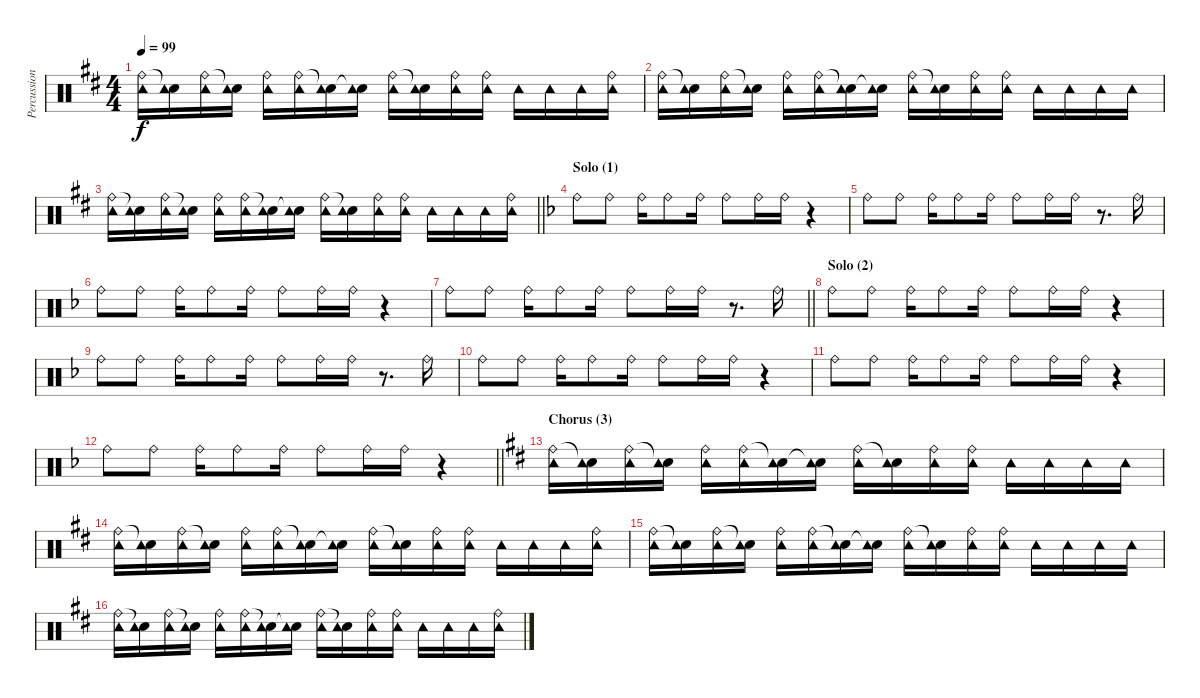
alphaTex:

\track ("Percussion" "Percussion") {instrument percussion}
\staff {score}
\articulation defaults
\ts (4 4)
\tempo 99
\clef neutral
\ks d
("Ride (bell)" "Tambourine (hit)").16{dy f} ("Snare (hit)"{t} "Tambourine (hit)").16 ("Ride (bell)" "Tambourine (hit)").16 ("Snare (hit)"{t} "Tambourine (hit)").16 ("Ride (bell)" "Tambourine (hit)").16 ("Ride (bell)" "Tambourine (hit)").16 ("Snare (hit)"{t} "Tambourine (hit)").16 ("Snare (hit)"{t} "Tambourine (hit)").16 ("Ride (bell)" "Tambourine (hit)").16 ("Snare (hit)"{t} "Tambourine (hit)").16 ("Ride (bell)" "Tambourine (hit)").16 ("Ride (bell)" "Tambourine (hit)").16 "Tambourine (hit)".16 "Tambourine (hit)".16 "Tambourine (hit)".16 ("Ride (bell)" "Tambourine (hit)").16 |
("Ride (bell)" "Tambourine (hit)").16 ("Snare (hit)"{t} "Tambourine (hit)").16 ("Ride (bell)" "Tambourine (hit)").16 ("Snare (hit)"{t} "Tambourine (hit)").16 ("Ride (bell)" "Tambourine (hit)").16 ("Ride (bell)" "Tambourine (hit)").16 ("Snare (hit)"{t} "Tambourine (hit)").16 ("Snare (hit)"{t} "Tambourine (hit)").16 ("Ride (bell)" "Tambourine (hit)").16 ("Snare (hit)"{t} "Tambourine (hit)").16 ("Ride (bell)" "Tambourine (hit)").16 ("Ride (bell)" "Tambourine (hit)").16 "Tambourine (hit)".16 "Tambourine (hit)".16 "Tambourine (hit)".16 "Tambourine (hit)".16 |
\barLineRight lightlight
("Ride (bell)" "Tambourine (hit)").16 ("Snare (hit)"{t} "Tambourine (hit)").16 ("Ride (bell)" "Tambourine (hit)").16 ("Snare (hit)"{t} "Tambourine (hit)").16 ("Ride (bell)" "Tambourine (hit)").16 ("Ride (bell)" "Tambourine (hit)").16 ("Snare (hit)"{t} "Tambourine (hit)").16 ("Snare (hit)"{t} "Tambourine (hit)").16 ("Ride (bell)" "Tambourine (hit)").16 ("Snare (hit)"{t} "Tambourine (hit)").16 ("Ride (bell)" "Tambourine (hit)").16 ("Ride (bell)" "Tambourine (hit)").16 "Tambourine (hit)".16 "Tambourine (hit)".16 "Tambourine (hit)".16 ("Ride (bell)" "Tambourine (hit)").16 |
\section ("" "Solo (1)")
\ks dminor "Ride (bell)".8 "Ride (bell)".8 "Ride (bell)".16 "Ride (bell)".8 "Ride (bell)".16 "Ride (bell)".8 "Ride (bell)".16 "Ride (bell)".16
r.4 |
"Ride (bell)".8 "Ride (bell)".8 "Ride (bell)".16 "Ride (bell)".8 "Ride (bell)".16 "Ride (bell)".8 "Ride (bell)".16 "Ride (bell)".16 r.8{d} "Ride (bell)".16 |
"Ride (bell)".8 "Ride (bell)".8 "Ride (bell)".16 "Ride (bell)".8 "Ride (bell)".16 "Ride (bell)".8 "Ride (bell)".16 "Ride (bell)".16 r.4 |
\barLineRight lightlight "Ride (bell)".8 "Ride (bell)".8 "Ride (bell)".16 "Ride (bell)".8 "Ride (bell)".16 "Ride (bell)".8 "Ride (bell)".16 "Ride (bell)".16
r.8{d} "Ride (bell)".16 |
\section ("" "Solo (2)")
"Ride (bell)".8 "Ride (bell)".8 "Ride (bell)".16 "Ride (bell)".8 "Ride (bell)".16 "Ride (bell)".8 "Ride (bell)".16 "Ride (bell)".16 r.4 |
"Ride (bell)".8 "Ride (bell)".8 "Ride (bell)".16 "Ride (bell)".8 "Ride (bell)".16 "Ride (bell)".8 "Ride (bell)".16 "Ride (bell)".16 r.8{d} "Ride (bell)".16 |
"Ride (bell)".8 "Ride (bell)".8 "Ride (bell)".16 "Ride (bell)".8 "Ride (bell)".16 "Ride (bell)".8 "Ride (bell)".16 "Ride (bell)".16 r.4 |
"Ride (bell)".8 "Ride (bell)".8 "Ride (bell)".16 "Ride (bell)".8 "Ride (bell)".16 "Ride (bell)".8 "Ride (bell)".16 "Ride (bell)".16 r.4 |
\barLineRight lightlight "Ride (bell)".8 "Ride (bell)".8 "Ride (bell)".16 "Ride (bell)".8 "Ride (bell)".16 "Ride (bell)".8 "Ride (bell)".16 "Ride (bell)".16
r.4 |
\section ("" "Chorus (3)")
\ks d
("Ride (bell)" "Tambourine (hit)").16 ("Snare (hit)"{t} "Tambourine (hit)").16 ("Ride (bell)" "Tambourine (hit)").16 ("Snare (hit)"{t} "Tambourine (hit)").16 ("Ride (bell)" "Tambourine (hit)").16 ("Ride (bell)" "Tambourine (hit)").16 ("Snare (hit)"{t} "Tambourine (hit)").16 ("Snare (hit)"{t} "Tambourine (hit)").16 ("Ride (bell)" "Tambourine (hit)").16 ("Snare (hit)"{t} "Tambourine (hit)").16 ("Ride (bell)" "Tambourine (hit)").16 ("Ride (bell)" "Tambourine (hit)").16 "Tambourine (hit)".16 "Tambourine (hit)".16 "Tambourine (hit)".16 "Tambourine (hit)".16 |
("Ride (bell)" "Tambourine (hit)").16 ("Snare (hit)"{t} "Tambourine (hit)").16 ("Ride (bell)" "Tambourine (hit)").16 ("Snare (hit)"{t} "Tambourine (hit)").16 ("Ride (bell)" "Tambourine (hit)").16 ("Ride (bell)" "Tambourine (hit)").16 ("Snare (hit)"{t} "Tambourine (hit)").16 ("Snare (hit)"{t} "Tambourine (hit)").16 ("Ride (bell)" "Tambourine (hit)").16 ("Snare (hit)"{t} "Tambourine (hit)").16 ("Ride (bell)" "Tambourine (hit)").16 ("Ride (bell)" "Tambourine (hit)").16 "Tambourine (hit)".16 "Tambourine (hit)".16 "Tambourine (hit)".16 ("Ride (bell)" "Tambourine (hit)").16 |
("Ride (bell)" "Tambourine (hit)").16 ("Snare (hit)"{t} "Tambourine (hit)").16 ("Ride (bell)" "Tambourine (hit)").16 ("Snare (hit)"{t} "Tambourine (hit)").16 ("Ride (bell)" "Tambourine (hit)").16 ("Ride (bell)" "Tambourine (hit)").16 ("Snare (hit)"{t} "Tambourine (hit)").16 ("Snare (hit)"{t} "Tambourine (hit)").16 ("Ride (bell)" "Tambourine (hit)").16 ("Snare (hit)"{t} "Tambourine (hit)").16 ("Ride (bell)" "Tambourine (hit)").16 ("Ride (bell)" "Tambourine (hit)").16 "Tambourine (hit)".16 "Tambourine (hit)".16 "Tambourine (hit)".16 "Tambourine (hit)".16 |
("Ride (bell)" "Tambourine (hit)").16 ("Snare (hit)"{t} "Tambourine (hit)").16 ("Ride (bell)" "Tambourine (hit)").16 ("Snare (hit)"{t} "Tambourine (hit)").16 ("Ride (bell)" "Tambourine (hit)").16 ("Ride (bell)" "Tambourine (hit)").16 ("Snare (hit)"{t} "Tambourine (hit)").16 ("Snare (hit)"{t} "Tambourine (hit)").16 ("Ride (bell)" "Tambourine (hit)").16 ("Snare (hit)"{t} "Tambourine (hit)").16 ("Ride (bell)" "Tambourine (hit)").16 ("Ride (bell)" "Tambourine (hit)").16 "Tambourine (hit)".16 "Tambourine (hit)".16 "Tambourine (hit)".16 ("Ride (bell)" "Tambourine (hit)").16
